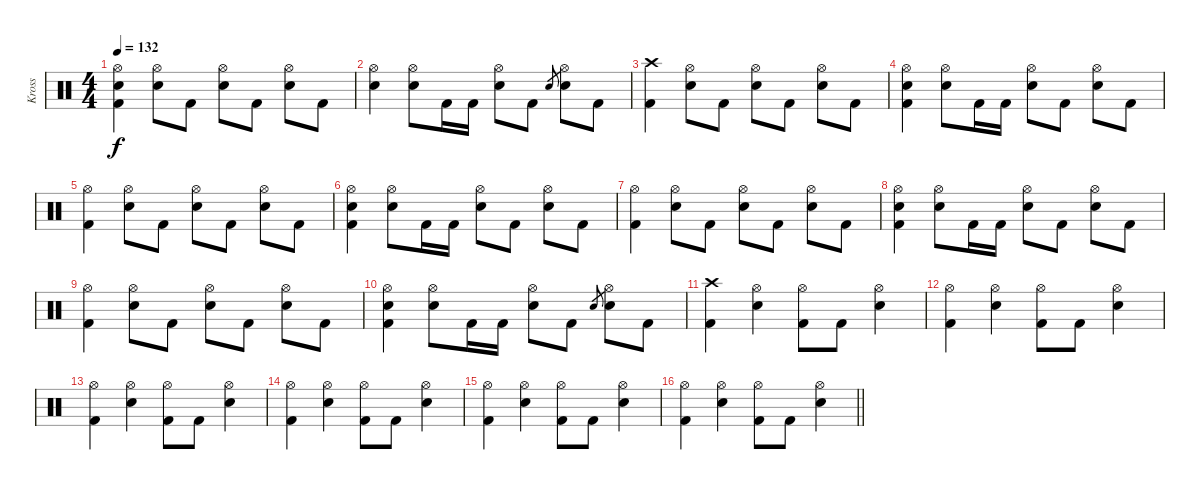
\track ("Kross" "Kross") {instrument percussion}
\staff {score}
\articulation defaults
\ts (4 4)
\tempo 132
\clef neutral
\ks c
("Hi-Hat (open)" "Electric Snare (hit)" "Kick (hit) 2").4{dy f} ("Hi-Hat (open)" "Electric Snare (hit)").8 "Kick (hit) 2".8 ("Hi-Hat (open)" "Electric Snare (hit)").8 "Kick (hit) 2".8 ("Hi-Hat (open)" "Electric Snare (hit)").8 "Kick (hit) 2".8 |
("Hi-Hat (open)" "Electric Snare (hit)").4 ("Hi-Hat (open)" "Electric Snare (hit)").8 "Kick (hit) 2".16 "Kick (hit) 2".16 ("Hi-Hat (open)" "Electric Snare (hit)").8 "Kick (hit) 2".8 "Electric Snare (hit)".8{gr} ("Hi-Hat (open)" "Electric Snare (hit)").8 "Kick (hit) 2".8 |
("Crash high (hit)" "Kick (hit) 2").4 ("Hi-Hat (open)" "Electric Snare (hit)").8 "Kick (hit) 2".8 ("Hi-Hat (open)" "Electric Snare (hit)").8 "Kick (hit) 2".8 ("Hi-Hat (open)" "Electric Snare (hit)").8 "Kick (hit) 2".8 |
("Hi-Hat (open)" "Electric Snare (hit)" "Kick (hit) 2").4 ("Hi-Hat (open)" "Electric Snare (hit)").8 "Kick (hit) 2".16 "Kick (hit) 2".16 ("Hi-Hat (open)" "Electric Snare (hit)").8 "Kick (hit) 2".8 ("Hi-Hat (open)" "Electric Snare (hit)").8 "Kick (hit) 2".8 |
("Hi-Hat (open)" "Kick (hit) 2").4 ("Hi-Hat (open)" "Electric Snare (hit)").8 "Kick (hit) 2".8 ("Hi-Hat (open)" "Electric Snare (hit)").8 "Kick (hit) 2".8 ("Hi-Hat (open)" "Electric Snare (hit)").8 "Kick (hit) 2".8 |
("Hi-Hat (open)" "Electric Snare (hit)" "Kick (hit) 2").4 ("Hi-Hat (open)" "Electric Snare (hit)").8 "Kick (hit) 2".16 "Kick (hit) 2".16 ("Hi-Hat (open)" "Electric Snare (hit)").8 "Kick (hit) 2".8 ("Hi-Hat (open)" "Electric Snare (hit)").8 "Kick (hit) 2".8 |
("Hi-Hat (open)" "Kick (hit) 2").4 ("Hi-Hat (open)" "Electric Snare (hit)").8 "Kick (hit) 2".8 ("Hi-Hat (open)" "Electric Snare (hit)").8 "Kick (hit) 2".8 ("Hi-Hat (open)" "Electric Snare (hit)").8 "Kick (hit) 2".8 |
("Hi-Hat (open)" "Electric Snare (hit)" "Kick (hit) 2").4 ("Hi-Hat (open)" "Electric Snare (hit)").8 "Kick (hit) 2".16 "Kick (hit) 2".16 ("Hi-Hat (open)" "Electric Snare (hit)").8 "Kick (hit) 2".8 ("Hi-Hat (open)" "Electric Snare (hit)").8 "Kick (hit) 2".8 |
("Hi-Hat (open)" "Kick (hit) 2").4 ("Hi-Hat (open)" "Electric Snare (hit)").8 "Kick (hit) 2".8 ("Hi-Hat (open)" "Electric Snare (hit)").8 "Kick (hit) 2".8 ("Hi-Hat (open)" "Electric Snare (hit)").8 "Kick (hit) 2".8 |
("Hi-Hat (open)" "Electric Snare (hit)" "Kick (hit) 2").4 ("Hi-Hat (open)" "Electric Snare (hit)").8 "Kick (hit) 2".16 "Kick (hit) 2".16 ("Hi-Hat (open)" "Electric Snare (hit)").8 "Kick (hit) 2".8 "Electric Snare (hit)".8{gr} ("Hi-Hat (open)" "Electric Snare (hit)").8 "Kick (hit) 2".8 |
("Crash high (hit)" "Kick (hit) 2").4 ("Hi-Hat (open)" "Electric Snare (hit)").4 ("Hi-Hat (open)" "Kick (hit) 2").8 "Kick (hit) 2".8 ("Hi-Hat (open)" "Electric Snare (hit)").4 |
("Hi-Hat (open)" "Kick (hit) 2").4 ("Hi-Hat (open)" "Electric Snare (hit)").4 ("Hi-Hat (open)" "Kick (hit) 2").8 "Kick (hit) 2".8 ("Hi-Hat (open)" "Electric Snare (hit)").4 |
("Hi-Hat (open)" "Kick (hit) 2").4 ("Hi-Hat (open)" "Electric Snare (hit)").4 ("Hi-Hat (open)" "Kick (hit) 2").8 "Kick (hit) 2".8 ("Hi-Hat (open)" "Electric Snare (hit)").4 |
("Hi-Hat (open)" "Kick (hit) 2").4 ("Hi-Hat (open)" "Electric Snare (hit)").4 ("Hi-Hat (open)" "Kick (hit) 2").8 "Kick (hit) 2".8 ("Hi-Hat (open)" "Electric Snare (hit)").4 |
("Hi-Hat (open)" "Kick (hit) 2").4 ("Hi-Hat (open)" "Electric Snare (hit)").4 ("Hi-Hat (open)" "Kick (hit) 2").8 "Kick (hit) 2".8 ("Hi-Hat (open)" "Electric Snare (hit)").4 |
\barLineRight lightlight
("Hi-Hat (open)" "Kick (hit) 2").4 ("Hi-Hat (open)" "Electric Snare (hit)").4 ("Hi-Hat (open)" "Kick (hit) 2").8 "Kick (hit) 2".8 ("Hi-Hat (open)" "Electric Snare (hit)").4
